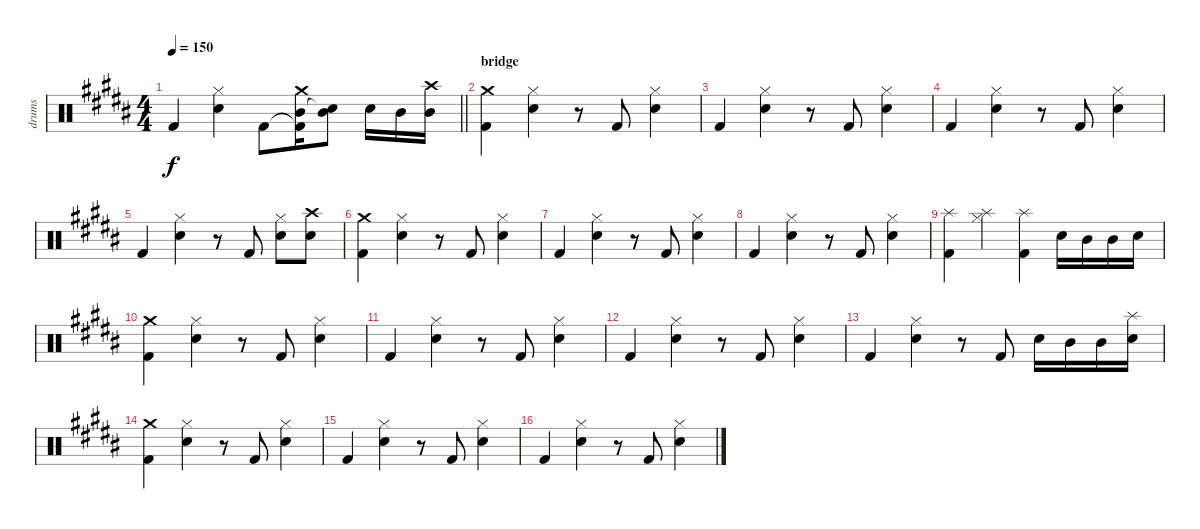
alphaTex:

\track ("drums" "drums") {instrument percussion}
\staff {score}
\articulation defaults
\ts (4 4)
\tempo 150
\clef neutral
\barLineRight lightlight
\ks b "Kick (hit) 2".4{dy f}
("Hi-Hat (closed)" "Electric Snare (hit)").4 "Kick (hit) 2".8 ("Kick (hit) 2"{t} "Mid Tom (hit)" "Crash medium (hit)").16 ("Mid Tom (hit)" "Snare (hit)"{t}).8 "Electric Snare (hit)".16 "Mid Tom (hit)".16 ("Mid Tom (hit)" "Crash high (hit)").16 |
\section ("" "bridge")
("Kick (hit) 2" "Crash medium (hit)").4 ("Hi-Hat (closed)" "Electric Snare (hit)").4 r.8 "Kick (hit) 2".8 ("Hi-Hat (closed)" "Electric Snare (hit)").4 |
"Kick (hit) 2".4 ("Hi-Hat (closed)" "Electric Snare (hit)").4 r.8 "Kick (hit) 2".8 ("Hi-Hat (closed)" "Electric Snare (hit)").4 |
"Kick (hit) 2".4 ("Hi-Hat (closed)" "Electric Snare (hit)").4 r.8 "Kick (hit) 2".8 ("Hi-Hat (closed)" "Electric Snare (hit)").4 |
"Kick (hit) 2".4 ("Hi-Hat (closed)" "Electric Snare (hit)").4 r.8 "Kick (hit) 2".8 ("Hi-Hat (closed)" "Electric Snare (hit)").8 ("Crash high (hit)" "Electric Snare (hit)").8 |
("Kick (hit) 2" "Crash medium (hit)").4 ("Hi-Hat (closed)" "Electric Snare (hit)").4 r.8 "Kick (hit) 2".8 ("Hi-Hat (closed)" "Electric Snare (hit)").4 |
"Kick (hit) 2".4 ("Hi-Hat (closed)" "Electric Snare (hit)").4 r.8 "Kick (hit) 2".8 ("Hi-Hat (closed)" "Electric Snare (hit)").4 |
"Kick (hit) 2".4 ("Hi-Hat (closed)" "Electric Snare (hit)").4 r.8 "Kick (hit) 2".8 ("Hi-Hat (closed)" "Electric Snare (hit)").4 |
("Kick (hit) 2" "Splash (hit)").4 ("Hi-Hat (closed)" "Splash (hit)").4 ("Kick (hit) 2" "Splash (hit)").4 "Electric Snare (hit)".16 "Mid Tom (hit)".16 "Mid Tom (hit)".16 "Electric Snare (hit)".16 |
("Kick (hit) 2" "Crash medium (hit)").4 ("Hi-Hat (closed)" "Electric Snare (hit)").4 r.8 "Kick (hit) 2".8 ("Hi-Hat (closed)" "Electric Snare (hit)").4 |
"Kick (hit) 2".4 ("Hi-Hat (closed)" "Electric Snare (hit)").4 r.8 "Kick (hit) 2".8 ("Hi-Hat (closed)" "Electric Snare (hit)").4 |
"Kick (hit) 2".4 ("Hi-Hat (closed)" "Electric Snare (hit)").4 r.8 "Kick (hit) 2".8 ("Hi-Hat (closed)" "Electric Snare (hit)").4 |
"Kick (hit) 2".4 ("Hi-Hat (closed)" "Electric Snare (hit)").4 r.8 "Kick (hit) 2".8 "Electric Snare (hit)".16 "Mid Tom (hit)".16 "Mid Tom (hit)".16 ("Splash (hit)" "Electric Snare (hit)").16 |
("Kick (hit) 2" "Crash medium (hit)").4 ("Hi-Hat (closed)" "Electric Snare (hit)").4 r.8 "Kick (hit) 2".8 ("Hi-Hat (closed)" "Electric Snare (hit)").4 |
"Kick (hit) 2".4 ("Hi-Hat (closed)" "Electric Snare (hit)").4 r.8 "Kick (hit) 2".8 ("Hi-Hat (closed)" "Electric Snare (hit)").4 |
"Kick (hit) 2".4 ("Hi-Hat (closed)" "Electric Snare (hit)").4 r.8 "Kick (hit) 2".8 ("Hi-Hat (closed)" "Electric Snare (hit)").4
